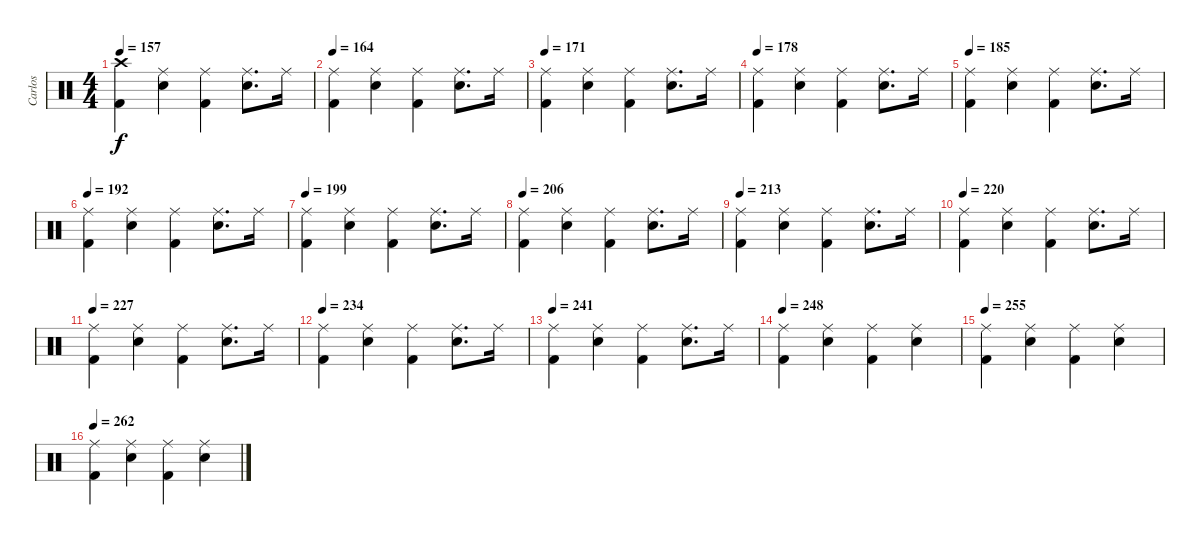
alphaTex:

\track ("Carlos" "Carlos") {instrument percussion}
\staff {score}
\articulation defaults
\ts (4 4)
\tempo 157
\clef neutral
\ks c
("Crash high (hit)" "Kick (hit) 2").4{dy f} ("Ride (middle)" "Snare (hit) 2").4 ("Ride (middle)" "Kick (hit) 2").4 ("Ride (middle)" "Snare (hit) 2").8{d} "Ride (middle)".16 |
\tempo 164
("Ride (middle)" "Kick (hit) 2").4 ("Ride (middle)" "Snare (hit) 2").4 ("Ride (middle)" "Kick (hit) 2").4 ("Ride (middle)" "Snare (hit) 2").8{d} "Ride (middle)".16 |
\tempo 171
("Ride (middle)" "Kick (hit) 2").4 ("Ride (middle)" "Snare (hit) 2").4 ("Ride (middle)" "Kick (hit) 2").4 ("Ride (middle)" "Snare (hit) 2").8{d} "Ride (middle)".16 |
\tempo 178
("Ride (middle)" "Kick (hit) 2").4 ("Ride (middle)" "Snare (hit) 2").4 ("Ride (middle)" "Kick (hit) 2").4 ("Ride (middle)" "Snare (hit) 2").8{d} "Ride (middle)".16 |
\tempo 185
("Ride (middle)" "Kick (hit) 2").4 ("Ride (middle)" "Snare (hit) 2").4 ("Ride (middle)" "Kick (hit) 2").4 ("Ride (middle)" "Snare (hit) 2").8{d} "Ride (middle)".16 |
\tempo 192
("Ride (middle)" "Kick (hit) 2").4 ("Ride (middle)" "Snare (hit) 2").4 ("Ride (middle)" "Kick (hit) 2").4 ("Ride (middle)" "Snare (hit) 2").8{d} "Ride (middle)".16 |
\tempo 199
("Ride (middle)" "Kick (hit) 2").4 ("Ride (middle)" "Snare (hit) 2").4 ("Ride (middle)" "Kick (hit) 2").4 ("Ride (middle)" "Snare (hit) 2").8{d} "Ride (middle)".16 |
\tempo 206
("Ride (middle)" "Kick (hit) 2").4 ("Ride (middle)" "Snare (hit) 2").4 ("Ride (middle)" "Kick (hit) 2").4 ("Ride (middle)" "Snare (hit) 2").8{d} "Ride (middle)".16 |
\tempo 213
("Ride (middle)" "Kick (hit) 2").4 ("Ride (middle)" "Snare (hit) 2").4 ("Ride (middle)" "Kick (hit) 2").4 ("Ride (middle)" "Snare (hit) 2").8{d} "Ride (middle)".16 |
\tempo 220
("Ride (middle)" "Kick (hit) 2").4 ("Ride (middle)" "Snare (hit) 2").4 ("Ride (middle)" "Kick (hit) 2").4 ("Ride (middle)" "Snare (hit) 2").8{d} "Ride (middle)".16 |
\tempo 227
("Ride (middle)" "Kick (hit) 2").4 ("Ride (middle)" "Snare (hit) 2").4 ("Ride (middle)" "Kick (hit) 2").4 ("Ride (middle)" "Snare (hit) 2").8{d} "Ride (middle)".16 |
\tempo 234
("Ride (middle)" "Kick (hit) 2").4 ("Ride (middle)" "Snare (hit) 2").4 ("Ride (middle)" "Kick (hit) 2").4 ("Ride (middle)" "Snare (hit) 2").8{d} "Ride (middle)".16 |
\tempo 241
("Ride (middle)" "Kick (hit) 2").4 ("Ride (middle)" "Snare (hit) 2").4 ("Ride (middle)" "Kick (hit) 2").4 ("Ride (middle)" "Snare (hit) 2").8{d} "Ride (middle)".16 |
\tempo 248
("Ride (middle)" "Kick (hit) 2").4 ("Ride (middle)" "Snare (hit) 2").4 ("Ride (middle)" "Kick (hit) 2").4 ("Ride (middle)" "Snare (hit) 2").4 |
\tempo 255
("Ride (middle)" "Kick (hit) 2").4 ("Ride (middle)" "Snare (hit) 2").4 ("Ride (middle)" "Kick (hit) 2").4 ("Ride (middle)" "Snare (hit) 2").4 |
\tempo 262
("Ride (middle)" "Kick (hit) 2").4 ("Ride (middle)" "Snare (hit) 2").4 ("Ride (middle)" "Kick (hit) 2").4 ("Ride (middle)" "Snare (hit) 2").4
